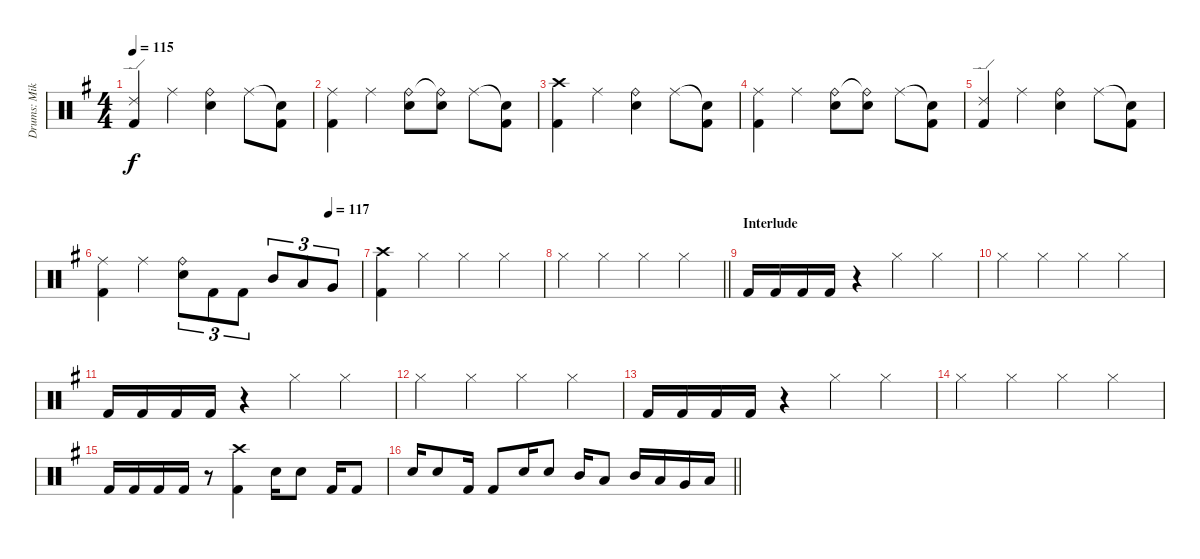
\track ("Drums: Mike" "Drums: Mik") {instrument percussion}
\staff {score}
\articulation defaults
\ts (4 4)
\tempo 115
\clef neutral
\ks g
("Ride (edge) 2" "Kick (hit) 2").4{dy f} "Ride (middle)".4 ("Ride (bell)" "Electric Snare (hit)").4 "Ride (middle)".8 ("Snare (hit)"{t} "Kick (hit) 2").8 |
("Ride (middle)" "Kick (hit) 2").4 "Ride (middle)".4 ("Ride (bell)" "Electric Snare (hit)").8 ("Ride (bell)"{t} "Electric Snare (hit)").8 "Ride (middle)".8 ("Snare (hit)"{t} "Kick (hit) 2").8 |
("Crash high (hit)" "Kick (hit) 2").4 "Ride (middle)".4 ("Ride (bell)" "Electric Snare (hit)").4 "Ride (middle)".8 ("Snare (hit)"{t} "Kick (hit) 2").8 |
("Ride (middle)" "Kick (hit) 2").4 "Ride (middle)".4 ("Ride (bell)" "Electric Snare (hit)").8 ("Ride (bell)"{t} "Electric Snare (hit)").8 "Ride (middle)".8 ("Snare (hit)"{t} "Kick (hit) 2").8 |
("Ride (edge) 2" "Kick (hit) 2").4 "Ride (middle)".4 ("Ride (bell)" "Electric Snare (hit)").4 "Ride (middle)".8 ("Snare (hit)"{t} "Kick (hit) 2").8 |
\tempo (117 0.875)
("Ride (middle)" "Kick (hit) 2").4 "Ride (middle)".4 ("Ride (bell)" "Electric Snare (hit)").8{tu (3 2)} "Kick (hit) 2".8{tu (3 2)} "Kick (hit) 2".8{tu (3 2)} "Mid Tom (hit)".8{tu (3 2)} "Low Tom (hit)".8{tu (3 2)} "Very Low Tom (hit)".8{tu (3 2)} |
("Crash high (hit)" "Kick (hit) 2").4 "Hi-Hat (closed)".4 "Hi-Hat (closed)".4 "Hi-Hat (closed)".4 |
\barLineRight lightlight "Hi-Hat (closed)".4 "Hi-Hat (closed)".4 "Hi-Hat (closed)".4 "Hi-Hat (closed)".4
|
\section ("" "Interlude")
"Kick (hit) 2".16 "Kick (hit) 2".16 "Kick (hit) 2".16 "Kick (hit) 2".16 r.4 "Hi-Hat (closed)".4 "Hi-Hat (closed)".4 |
"Hi-Hat (closed)".4 "Hi-Hat (closed)".4 "Hi-Hat (closed)".4 "Hi-Hat (closed)".4 |
"Kick (hit) 2".16 "Kick (hit) 2".16 "Kick (hit) 2".16 "Kick (hit) 2".16 r.4 "Hi-Hat (closed)".4 "Hi-Hat (closed)".4 |
"Hi-Hat (closed)".4 "Hi-Hat (closed)".4 "Hi-Hat (closed)".4 "Hi-Hat (closed)".4 |
"Kick (hit) 2".16 "Kick (hit) 2".16 "Kick (hit) 2".16 "Kick (hit) 2".16 r.4 "Hi-Hat (closed)".4 "Hi-Hat (closed)".4 |
"Hi-Hat (closed)".4 "Hi-Hat (closed)".4 "Hi-Hat (closed)".4 "Hi-Hat (closed)".4 |
"Kick (hit) 2".16 "Kick (hit) 2".16 "Kick (hit) 2".16 "Kick (hit) 2".16 r.8 ("Crash high (hit)" "Kick (hit) 2").4 "Electric Snare (hit)".16 "Electric Snare (hit)".8 "Kick (hit) 2".16 "Kick (hit) 2".8 |
\barLineRight lightlight "Electric Snare (hit)".16 "Electric Snare (hit)".8 "Kick (hit) 2".16 "Kick (hit) 2".8 "Electric Snare (hit)".16 "Electric Snare (hit)".8 "Mid Tom (hit)".16 "Low Tom (hit)".8 "Mid Tom (hit)".16 "Low Tom (hit)".16 "Very Low Tom (hit)".16 "Low Floor Tom (hit)".16
